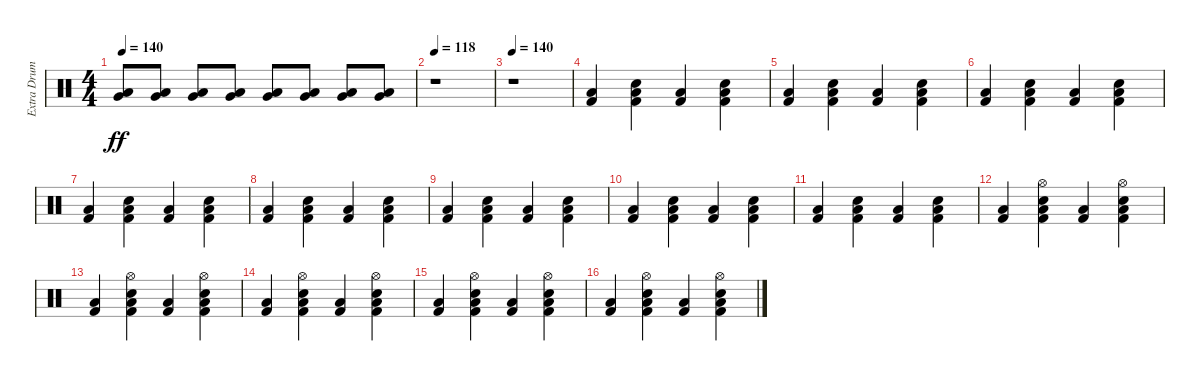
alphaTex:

\track ("Extra Drums" "Extra Drum") {instrument percussion}
\staff {score}
\articulation defaults
\ts (4 4)
\tempo 140
\clef neutral
\ks c
("Low Floor Tom (hit)" "Very Low Tom (hit)").8{dy ff} ("Low Floor Tom (hit)" "Very Low Tom (hit)").8 ("Low Floor Tom (hit)" "Very Low Tom (hit)").8 ("Low Floor Tom (hit)" "Very Low Tom (hit)").8 ("Low Floor Tom (hit)" "Very Low Tom (hit)").8 ("Low Floor Tom (hit)" "Very Low Tom (hit)").8 ("Low Floor Tom (hit)" "Very Low Tom (hit)").8 ("Low Floor Tom (hit)" "Very Low Tom (hit)").8 |
\tempo 118
r.1 |
\tempo 140
r.1 |
("Low Floor Tom (hit)" "Kick (hit) 2").4 ("Electric Snare (hit)" "Low Floor Tom (hit)" "Kick (hit) 2").4 ("Low Floor Tom (hit)" "Kick (hit) 2").4 ("Electric Snare (hit)" "Low Floor Tom (hit)" "Kick (hit) 2").4 |
("Low Floor Tom (hit)" "Kick (hit) 2").4 ("Electric Snare (hit)" "Low Floor Tom (hit)" "Kick (hit) 2").4 ("Low Floor Tom (hit)" "Kick (hit) 2").4 ("Electric Snare (hit)" "Low Floor Tom (hit)" "Kick (hit) 2").4 |
("Low Floor Tom (hit)" "Kick (hit) 2").4 ("Electric Snare (hit)" "Low Floor Tom (hit)" "Kick (hit) 2").4 ("Low Floor Tom (hit)" "Kick (hit) 2").4 ("Electric Snare (hit)" "Low Floor Tom (hit)" "Kick (hit) 2").4 |
("Low Floor Tom (hit)" "Kick (hit) 2").4 ("Electric Snare (hit)" "Low Floor Tom (hit)" "Kick (hit) 2").4 ("Low Floor Tom (hit)" "Kick (hit) 2").4 ("Electric Snare (hit)" "Low Floor Tom (hit)" "Kick (hit) 2").4 |
("Low Floor Tom (hit)" "Kick (hit) 2").4 ("Electric Snare (hit)" "Low Floor Tom (hit)" "Kick (hit) 2").4 ("Low Floor Tom (hit)" "Kick (hit) 2").4 ("Electric Snare (hit)" "Low Floor Tom (hit)" "Kick (hit) 2").4 |
("Low Floor Tom (hit)" "Kick (hit) 2").4 ("Electric Snare (hit)" "Low Floor Tom (hit)" "Kick (hit) 2").4 ("Low Floor Tom (hit)" "Kick (hit) 2").4 ("Electric Snare (hit)" "Low Floor Tom (hit)" "Kick (hit) 2").4 |
("Low Floor Tom (hit)" "Kick (hit) 2").4 ("Electric Snare (hit)" "Low Floor Tom (hit)" "Kick (hit) 2").4 ("Low Floor Tom (hit)" "Kick (hit) 2").4 ("Electric Snare (hit)" "Low Floor Tom (hit)" "Kick (hit) 2").4 |
("Low Floor Tom (hit)" "Kick (hit) 2").4 ("Electric Snare (hit)" "Low Floor Tom (hit)" "Kick (hit) 2").4 ("Low Floor Tom (hit)" "Kick (hit) 2").4 ("Electric Snare (hit)" "Low Floor Tom (hit)" "Kick (hit) 2").4 |
("Low Floor Tom (hit)" "Kick (hit) 2").4 ("Hi-Hat (open)" "Electric Snare (hit)" "Low Floor Tom (hit)" "Kick (hit) 2").4 ("Low Floor Tom (hit)" "Kick (hit) 2").4 ("Hi-Hat (open)" "Electric Snare (hit)" "Low Floor Tom (hit)" "Kick (hit) 2").4 |
("Low Floor Tom (hit)" "Kick (hit) 2").4 ("Hi-Hat (open)" "Electric Snare (hit)" "Low Floor Tom (hit)" "Kick (hit) 2").4 ("Low Floor Tom (hit)" "Kick (hit) 2").4 ("Hi-Hat (open)" "Electric Snare (hit)" "Low Floor Tom (hit)" "Kick (hit) 2").4 |
("Low Floor Tom (hit)" "Kick (hit) 2").4 ("Hi-Hat (open)" "Electric Snare (hit)" "Low Floor Tom (hit)" "Kick (hit) 2").4 ("Low Floor Tom (hit)" "Kick (hit) 2").4 ("Hi-Hat (open)" "Electric Snare (hit)" "Low Floor Tom (hit)" "Kick (hit) 2").4 |
("Low Floor Tom (hit)" "Kick (hit) 2").4 ("Hi-Hat (open)" "Electric Snare (hit)" "Low Floor Tom (hit)" "Kick (hit) 2").4 ("Low Floor Tom (hit)" "Kick (hit) 2").4 ("Hi-Hat (open)" "Electric Snare (hit)" "Low Floor Tom (hit)" "Kick (hit) 2").4 |
("Low Floor Tom (hit)" "Kick (hit) 2").4 ("Hi-Hat (open)" "Electric Snare (hit)" "Low Floor Tom (hit)" "Kick (hit) 2").4 ("Low Floor Tom (hit)" "Kick (hit) 2").4 ("Hi-Hat (open)" "Electric Snare (hit)" "Low Floor Tom (hit)" "Kick (hit) 2").4
